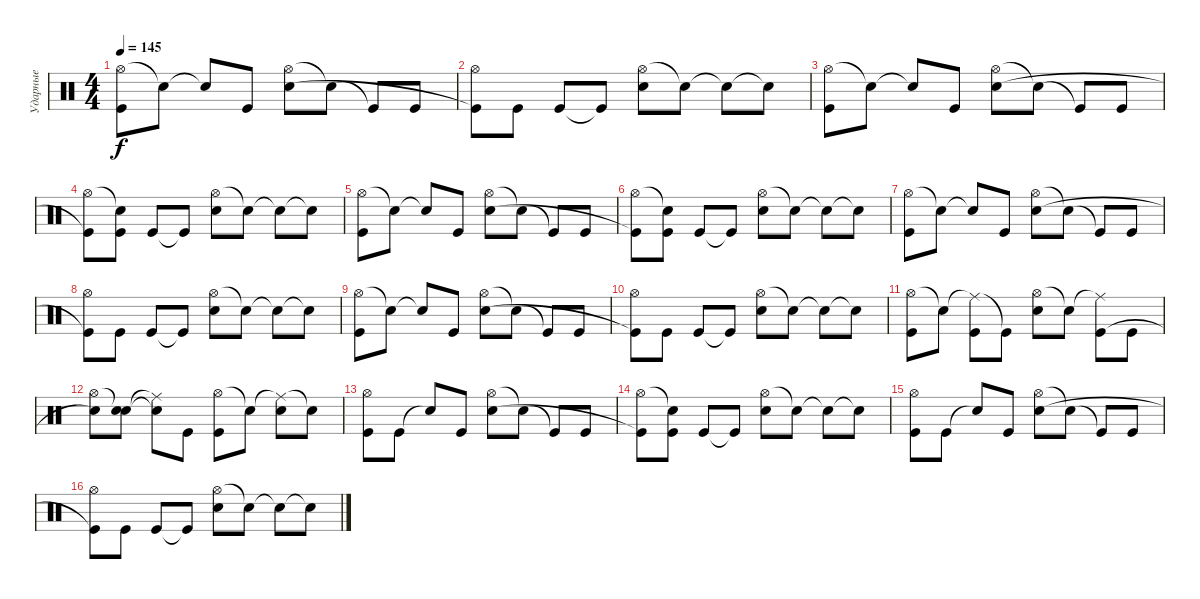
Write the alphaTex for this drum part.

\track ("Ударные" "Ударные") {instrument percussion}
\staff {score}
\articulation defaults
\ts (4 4)
\tempo 145
\clef neutral
\ks c
("Hi-Hat (open)" "Kick (hit)").8{dy f} "Snare (hit)"{t}.8 "Snare (hit)"{t}.8 "Kick (hit)".8 ("Hi-Hat (open)" "Snare (hit) 2").8 "Snare (hit)"{t}.8 "Kick (hit)"{t}.8 "Kick (hit)".8 |
("Hi-Hat (open)" "Kick (hit)"{t}).8 "Kick (hit)".8 "Kick (hit)".8 "Kick (hit)"{t}.8 ("Hi-Hat (open)" "Snare (hit) 2").8 "Snare (hit)"{t}.8 "Snare (hit)"{t}.8 "Snare (hit)"{t}.8 |
("Hi-Hat (open)" "Kick (hit)").8 "Snare (hit)"{t}.8 "Snare (hit)"{t}.8 "Kick (hit)".8 ("Hi-Hat (open)" "Snare (hit) 2").8 "Snare (hit)"{t}.8 "Kick (hit)"{t}.8 "Kick (hit)".8 |
("Hi-Hat (open)" "Kick (hit)"{t}).8 ("Snare (hit)"{t} "Kick (hit)").8 "Kick (hit)".8 "Kick (hit)"{t}.8 ("Hi-Hat (open)" "Snare (hit) 2").8 "Snare (hit)"{t}.8 "Snare (hit)"{t}.8 "Snare (hit)"{t}.8 |
("Hi-Hat (open)" "Kick (hit)").8 "Snare (hit)"{t}.8 "Snare (hit)"{t}.8 "Kick (hit)".8 ("Hi-Hat (open)" "Snare (hit) 2").8 "Snare (hit)"{t}.8 "Kick (hit)"{t}.8 "Kick (hit)".8 |
("Hi-Hat (open)" "Kick (hit)"{t}).8 ("Snare (hit)"{t} "Kick (hit)").8 "Kick (hit)".8 "Kick (hit)"{t}.8 ("Hi-Hat (open)" "Snare (hit) 2").8 "Snare (hit)"{t}.8 "Snare (hit)"{t}.8 "Snare (hit)"{t}.8 |
("Hi-Hat (open)" "Kick (hit)").8 "Snare (hit)"{t}.8 "Snare (hit)"{t}.8 "Kick (hit)".8 ("Hi-Hat (open)" "Snare (hit) 2").8 "Snare (hit)"{t}.8 "Kick (hit)"{t}.8 "Kick (hit)".8 |
("Hi-Hat (open)" "Kick (hit)"{t}).8 "Kick (hit)".8 "Kick (hit)".8 "Kick (hit)"{t}.8 ("Hi-Hat (open)" "Snare (hit) 2").8 "Snare (hit)"{t}.8 "Snare (hit)"{t}.8 "Snare (hit)"{t}.8 |
("Hi-Hat (open)" "Kick (hit)").8 "Snare (hit)"{t}.8 "Snare (hit)"{t}.8 "Kick (hit)".8 ("Hi-Hat (open)" "Snare (hit) 2").8 "Snare (hit)"{t}.8 "Kick (hit)"{t}.8 "Kick (hit)".8 |
("Hi-Hat (open)" "Kick (hit)"{t}).8 "Kick (hit)".8 "Kick (hit)".8 "Kick (hit)"{t}.8 ("Hi-Hat (open)" "Snare (hit) 2").8 "Snare (hit)"{t}.8 "Snare (hit)"{t}.8 "Snare (hit)"{t}.8 |
("Hi-Hat (open)" "Kick (hit)").8 "Snare (hit)"{t}.8 ("Ride (middle)"{t} "Kick (hit)").8 "Kick (hit)"{t}.8 ("Hi-Hat (open)" "Snare (hit) 2").8 "Snare (hit)"{t}.8 ("Ride (middle)"{t} "Kick (hit)").8 "Kick (hit)".8 |
("Hi-Hat (open)" "Snare (hit) 2"{t}).8 ("Snare (hit)"{t} "Snare (hit) 2").8 ("Ride (middle)"{t} "Snare (hit) 2"{t}).8 "Kick (hit)".8 ("Hi-Hat (open)" "Kick (hit)").8 "Snare (hit) 2"{t}.8 ("Ride (middle)"{t} "Snare (hit) 2").8 "Snare (hit)"{t}.8 |
("Hi-Hat (open)" "Kick (hit)").8 "Kick (hit)".8 "Snare (hit)"{t}.8 "Kick (hit)".8 ("Hi-Hat (open)" "Snare (hit) 2").8 "Snare (hit)"{t}.8 "Kick (hit)"{t}.8 "Kick (hit)".8 |
("Hi-Hat (open)" "Kick (hit)"{t}).8 ("Snare (hit)"{t} "Kick (hit)").8 "Kick (hit)".8 "Kick (hit)"{t}.8 ("Hi-Hat (open)" "Snare (hit) 2").8 "Snare (hit)"{t}.8 "Snare (hit)"{t}.8 "Snare (hit)"{t}.8 |
("Hi-Hat (open)" "Kick (hit)").8 "Kick (hit)".8 "Snare (hit)"{t}.8 "Kick (hit)".8 ("Hi-Hat (open)" "Snare (hit) 2").8 "Snare (hit)"{t}.8 "Kick (hit)"{t}.8 "Kick (hit)".8 |
("Hi-Hat (open)" "Kick (hit)"{t}).8 "Kick (hit)".8 "Kick (hit)".8 "Kick (hit)"{t}.8 ("Hi-Hat (open)" "Snare (hit) 2").8 "Snare (hit)"{t}.8 "Snare (hit)"{t}.8 "Snare (hit)"{t}.8
